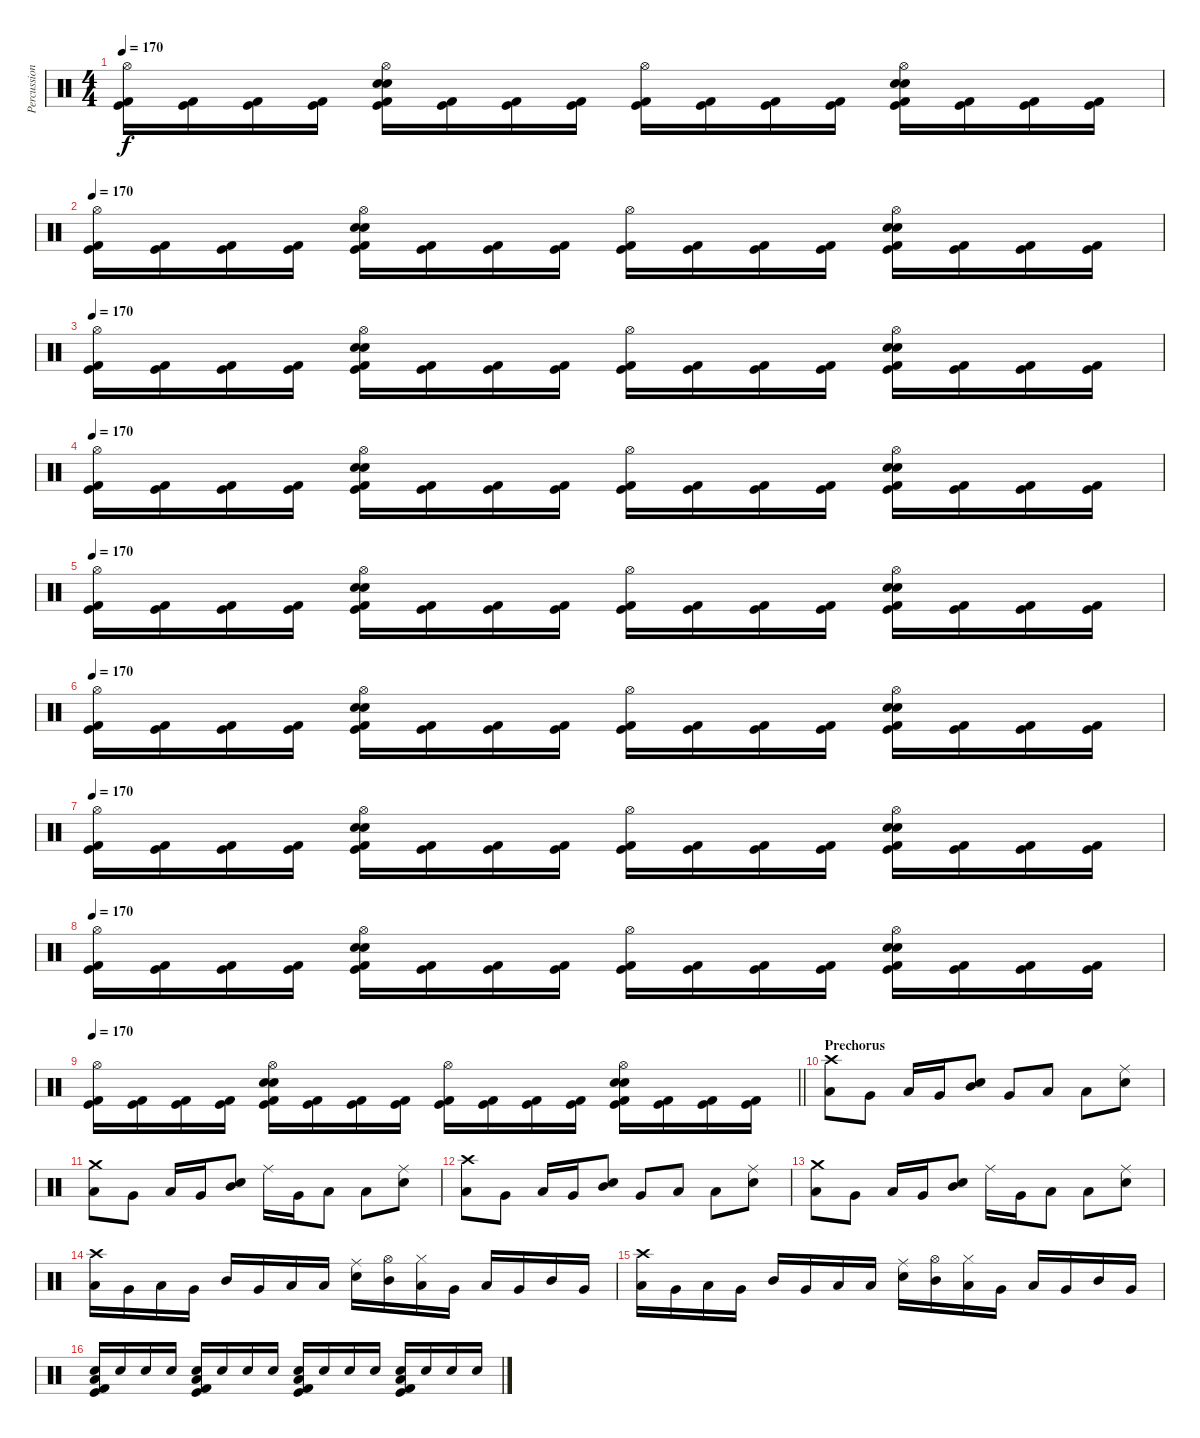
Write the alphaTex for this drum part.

\track ("Percussion" "Percussion") {instrument percussion}
\staff {score}
\articulation defaults
\ts (4 4)
\tempo 170
\clef neutral
\ks c
("Hi-Hat (open)" "Kick (hit) 2" "Kick (hit)").16{dy f} ("Kick (hit) 2" "Kick (hit)").16 ("Kick (hit) 2" "Kick (hit)").16 ("Kick (hit) 2" "Kick (hit)").16 ("Hi-Hat (open)" "Electric Snare (hit)" "Electric Snare (hit)" "Kick (hit) 2" "Kick (hit)").16 ("Kick (hit) 2" "Kick (hit)").16 ("Kick (hit) 2" "Kick (hit)").16 ("Kick (hit) 2" "Kick (hit)").16 ("Hi-Hat (open)" "Kick (hit) 2" "Kick (hit)").16 ("Kick (hit) 2" "Kick (hit)").16 ("Kick (hit) 2" "Kick (hit)").16 ("Kick (hit) 2" "Kick (hit)").16 ("Hi-Hat (open)" "Electric Snare (hit)" "Electric Snare (hit)" "Kick (hit) 2" "Kick (hit)").16 ("Kick (hit) 2" "Kick (hit)").16 ("Kick (hit) 2" "Kick (hit)").16 ("Kick (hit) 2" "Kick (hit)").16 |
\tempo 170
("Hi-Hat (open)" "Kick (hit) 2" "Kick (hit)").16 ("Kick (hit) 2" "Kick (hit)").16 ("Kick (hit) 2" "Kick (hit)").16 ("Kick (hit) 2" "Kick (hit)").16 ("Hi-Hat (open)" "Electric Snare (hit)" "Electric Snare (hit)" "Kick (hit) 2" "Kick (hit)").16 ("Kick (hit) 2" "Kick (hit)").16 ("Kick (hit) 2" "Kick (hit)").16 ("Kick (hit) 2" "Kick (hit)").16 ("Hi-Hat (open)" "Kick (hit) 2" "Kick (hit)").16 ("Kick (hit) 2" "Kick (hit)").16 ("Kick (hit) 2" "Kick (hit)").16 ("Kick (hit) 2" "Kick (hit)").16 ("Hi-Hat (open)" "Electric Snare (hit)" "Electric Snare (hit)" "Kick (hit) 2" "Kick (hit)").16 ("Kick (hit) 2" "Kick (hit)").16 ("Kick (hit) 2" "Kick (hit)").16 ("Kick (hit) 2" "Kick (hit)").16 |
\tempo 170
("Hi-Hat (open)" "Kick (hit) 2" "Kick (hit)").16 ("Kick (hit) 2" "Kick (hit)").16 ("Kick (hit) 2" "Kick (hit)").16 ("Kick (hit) 2" "Kick (hit)").16 ("Hi-Hat (open)" "Electric Snare (hit)" "Electric Snare (hit)" "Kick (hit) 2" "Kick (hit)").16 ("Kick (hit) 2" "Kick (hit)").16 ("Kick (hit) 2" "Kick (hit)").16 ("Kick (hit) 2" "Kick (hit)").16 ("Hi-Hat (open)" "Kick (hit) 2" "Kick (hit)").16 ("Kick (hit) 2" "Kick (hit)").16 ("Kick (hit) 2" "Kick (hit)").16 ("Kick (hit) 2" "Kick (hit)").16 ("Hi-Hat (open)" "Electric Snare (hit)" "Electric Snare (hit)" "Kick (hit) 2" "Kick (hit)").16 ("Kick (hit) 2" "Kick (hit)").16 ("Kick (hit) 2" "Kick (hit)").16 ("Kick (hit) 2" "Kick (hit)").16 |
\tempo 170
("Hi-Hat (open)" "Kick (hit) 2" "Kick (hit)").16 ("Kick (hit) 2" "Kick (hit)").16 ("Kick (hit) 2" "Kick (hit)").16 ("Kick (hit) 2" "Kick (hit)").16 ("Hi-Hat (open)" "Electric Snare (hit)" "Electric Snare (hit)" "Kick (hit) 2" "Kick (hit)").16 ("Kick (hit) 2" "Kick (hit)").16 ("Kick (hit) 2" "Kick (hit)").16 ("Kick (hit) 2" "Kick (hit)").16 ("Hi-Hat (open)" "Kick (hit) 2" "Kick (hit)").16 ("Kick (hit) 2" "Kick (hit)").16 ("Kick (hit) 2" "Kick (hit)").16 ("Kick (hit) 2" "Kick (hit)").16 ("Hi-Hat (open)" "Electric Snare (hit)" "Electric Snare (hit)" "Kick (hit) 2" "Kick (hit)").16 ("Kick (hit) 2" "Kick (hit)").16 ("Kick (hit) 2" "Kick (hit)").16 ("Kick (hit) 2" "Kick (hit)").16 |
\tempo 170
("Hi-Hat (open)" "Kick (hit) 2" "Kick (hit)").16 ("Kick (hit) 2" "Kick (hit)").16 ("Kick (hit) 2" "Kick (hit)").16 ("Kick (hit) 2" "Kick (hit)").16 ("Hi-Hat (open)" "Electric Snare (hit)" "Electric Snare (hit)" "Kick (hit) 2" "Kick (hit)").16 ("Kick (hit) 2" "Kick (hit)").16 ("Kick (hit) 2" "Kick (hit)").16 ("Kick (hit) 2" "Kick (hit)").16 ("Hi-Hat (open)" "Kick (hit) 2" "Kick (hit)").16 ("Kick (hit) 2" "Kick (hit)").16 ("Kick (hit) 2" "Kick (hit)").16 ("Kick (hit) 2" "Kick (hit)").16 ("Hi-Hat (open)" "Electric Snare (hit)" "Electric Snare (hit)" "Kick (hit) 2" "Kick (hit)").16 ("Kick (hit) 2" "Kick (hit)").16 ("Kick (hit) 2" "Kick (hit)").16 ("Kick (hit) 2" "Kick (hit)").16 |
\tempo 170
("Hi-Hat (open)" "Kick (hit) 2" "Kick (hit)").16 ("Kick (hit) 2" "Kick (hit)").16 ("Kick (hit) 2" "Kick (hit)").16 ("Kick (hit) 2" "Kick (hit)").16 ("Hi-Hat (open)" "Electric Snare (hit)" "Electric Snare (hit)" "Kick (hit) 2" "Kick (hit)").16 ("Kick (hit) 2" "Kick (hit)").16 ("Kick (hit) 2" "Kick (hit)").16 ("Kick (hit) 2" "Kick (hit)").16 ("Hi-Hat (open)" "Kick (hit) 2" "Kick (hit)").16 ("Kick (hit) 2" "Kick (hit)").16 ("Kick (hit) 2" "Kick (hit)").16 ("Kick (hit) 2" "Kick (hit)").16 ("Hi-Hat (open)" "Electric Snare (hit)" "Electric Snare (hit)" "Kick (hit) 2" "Kick (hit)").16 ("Kick (hit) 2" "Kick (hit)").16 ("Kick (hit) 2" "Kick (hit)").16 ("Kick (hit) 2" "Kick (hit)").16 |
\tempo 170
("Hi-Hat (open)" "Kick (hit) 2" "Kick (hit)").16 ("Kick (hit) 2" "Kick (hit)").16 ("Kick (hit) 2" "Kick (hit)").16 ("Kick (hit) 2" "Kick (hit)").16 ("Hi-Hat (open)" "Electric Snare (hit)" "Electric Snare (hit)" "Kick (hit) 2" "Kick (hit)").16 ("Kick (hit) 2" "Kick (hit)").16 ("Kick (hit) 2" "Kick (hit)").16 ("Kick (hit) 2" "Kick (hit)").16 ("Hi-Hat (open)" "Kick (hit) 2" "Kick (hit)").16 ("Kick (hit) 2" "Kick (hit)").16 ("Kick (hit) 2" "Kick (hit)").16 ("Kick (hit) 2" "Kick (hit)").16 ("Hi-Hat (open)" "Electric Snare (hit)" "Electric Snare (hit)" "Kick (hit) 2" "Kick (hit)").16 ("Kick (hit) 2" "Kick (hit)").16 ("Kick (hit) 2" "Kick (hit)").16 ("Kick (hit) 2" "Kick (hit)").16 |
\tempo 170
("Hi-Hat (open)" "Kick (hit) 2" "Kick (hit)").16 ("Kick (hit) 2" "Kick (hit)").16 ("Kick (hit) 2" "Kick (hit)").16 ("Kick (hit) 2" "Kick (hit)").16 ("Hi-Hat (open)" "Electric Snare (hit)" "Electric Snare (hit)" "Kick (hit) 2" "Kick (hit)").16 ("Kick (hit) 2" "Kick (hit)").16 ("Kick (hit) 2" "Kick (hit)").16 ("Kick (hit) 2" "Kick (hit)").16 ("Hi-Hat (open)" "Kick (hit) 2" "Kick (hit)").16 ("Kick (hit) 2" "Kick (hit)").16 ("Kick (hit) 2" "Kick (hit)").16 ("Kick (hit) 2" "Kick (hit)").16 ("Hi-Hat (open)" "Electric Snare (hit)" "Electric Snare (hit)" "Kick (hit) 2" "Kick (hit)").16 ("Kick (hit) 2" "Kick (hit)").16 ("Kick (hit) 2" "Kick (hit)").16 ("Kick (hit) 2" "Kick (hit)").16 |
\tempo 170
\barLineRight lightlight
("Hi-Hat (open)" "Kick (hit) 2" "Kick (hit)").16 ("Kick (hit) 2" "Kick (hit)").16 ("Kick (hit) 2" "Kick (hit)").16 ("Kick (hit) 2" "Kick (hit)").16 ("Hi-Hat (open)" "Electric Snare (hit)" "Electric Snare (hit)" "Kick (hit) 2" "Kick (hit)").16 ("Kick (hit) 2" "Kick (hit)").16 ("Kick (hit) 2" "Kick (hit)").16 ("Kick (hit) 2" "Kick (hit)").16 ("Hi-Hat (open)" "Kick (hit) 2" "Kick (hit)").16 ("Kick (hit) 2" "Kick (hit)").16 ("Kick (hit) 2" "Kick (hit)").16 ("Kick (hit) 2" "Kick (hit)").16 ("Hi-Hat (open)" "Electric Snare (hit)" "Electric Snare (hit)" "Kick (hit) 2" "Kick (hit)").16 ("Kick (hit) 2" "Kick (hit)").16 ("Kick (hit) 2" "Kick (hit)").16 ("Kick (hit) 2" "Kick (hit)").16 |
\section ("" "Prechorus")
("Crash high (hit)" "Low Tom (hit)").8 "Very Low Tom (hit)".8 "Low Floor Tom (hit)".16 "Very Low Tom (hit)".16 ("Electric Snare (hit)" "Mid Tom (hit)").8 "Very Low Tom (hit)".8 "Low Tom (hit)".8 "Low Floor Tom (hit)".8 ("Ride (middle)" "Snare (hit) 2").8 |
("Crash medium (hit)" "Low Tom (hit)").8 "Very Low Tom (hit)".8 "Low Floor Tom (hit)".16 "Very Low Tom (hit)".16 ("Electric Snare (hit)" "Mid Tom (hit)").8 "Ride (middle)".16 "Very Low Tom (hit)".16 "Low Tom (hit)".8 "Low Floor Tom (hit)".8 ("Ride (middle)" "Snare (hit) 2").8 |
("Crash high (hit)" "Low Tom (hit)").8 "Very Low Tom (hit)".8 "Low Floor Tom (hit)".16 "Very Low Tom (hit)".16 ("Electric Snare (hit)" "Mid Tom (hit)").8 "Very Low Tom (hit)".8 "Low Tom (hit)".8 "Low Floor Tom (hit)".8 ("Ride (middle)" "Snare (hit) 2").8 |
("Crash medium (hit)" "Low Tom (hit)").8 "Very Low Tom (hit)".8 "Low Floor Tom (hit)".16 "Very Low Tom (hit)".16 ("Electric Snare (hit)" "Mid Tom (hit)").8 "Ride (middle)".16 "Very Low Tom (hit)".16 "Low Tom (hit)".8 "Low Floor Tom (hit)".8 ("Ride (middle)" "Snare (hit) 2").8 |
("Crash high (hit)" "Low Tom (hit)").16 "Very Low Tom (hit)".16 "Low Floor Tom (hit)".16 "Very Low Tom (hit)".16 "Mid Tom (hit)".16 "Very Low Tom (hit)".16 "Low Tom (hit)".16 "Low Floor Tom (hit)".16 ("Ride (middle)" "Snare (hit) 2").16 ("Hi-Hat (open)" "Mid Tom (hit)").16 ("Hi-Hat (closed)" "Low Tom (hit)").16 "Very Low Tom (hit)".16 "Low Floor Tom (hit)".16 "Very Low Tom (hit)".16 "Mid Tom (hit)".16 "Very Low Tom (hit)".16 |
("Crash high (hit)" "Low Tom (hit)").16 "Very Low Tom (hit)".16 "Low Floor Tom (hit)".16 "Very Low Tom (hit)".16 "Mid Tom (hit)".16 "Very Low Tom (hit)".16 "Low Tom (hit)".16 "Low Floor Tom (hit)".16 ("Ride (middle)" "Snare (hit) 2").16 ("Hi-Hat (open)" "Mid Tom (hit)").16 ("Hi-Hat (closed)" "Low Tom (hit)").16 "Very Low Tom (hit)".16 "Low Floor Tom (hit)".16 "Very Low Tom (hit)".16 "Mid Tom (hit)".16 "Very Low Tom (hit)".16 |
("Low Floor Tom (hit)" "Snare (hit) 2" "Kick (hit) 2" "Kick (hit)").16 "Snare (hit) 2".16 "Snare (hit) 2".16 "Snare (hit) 2".16 ("Low Floor Tom (hit)" "Snare (hit) 2" "Kick (hit) 2" "Kick (hit)").16 "Snare (hit) 2".16 "Snare (hit) 2".16 "Snare (hit) 2".16 ("Low Floor Tom (hit)" "Snare (hit) 2" "Kick (hit) 2" "Kick (hit)").16 "Snare (hit) 2".16 "Snare (hit) 2".16 "Snare (hit) 2".16 ("Low Floor Tom (hit)" "Snare (hit) 2" "Kick (hit) 2" "Kick (hit)").16 "Snare (hit) 2".16 "Snare (hit) 2".16 "Snare (hit) 2".16
